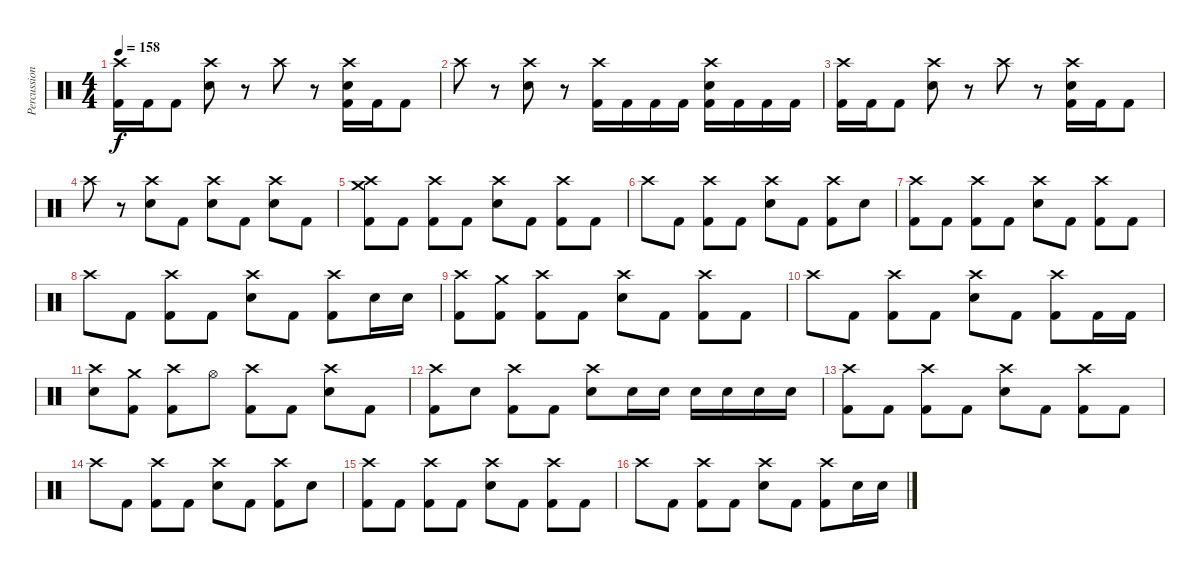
\track ("Percussion" "Percussion") {instrument percussion}
\staff {score}
\articulation defaults
\ts (4 4)
\tempo 158
\clef neutral
\ks c
("Crash high (hit)" "Kick (hit) 2").16{dy f} "Kick (hit) 2".16 "Kick (hit) 2".8 ("Crash high (hit)" "Snare (hit) 2").8 r.8 "Crash high (hit)".8 r.8 ("Crash high (hit)" "Snare (hit) 2" "Kick (hit) 2").16 "Kick (hit) 2".16 "Kick (hit) 2".8 |
"Crash high (hit)".8 r.8 ("Crash high (hit)" "Snare (hit) 2").8 r.8 ("Crash high (hit)" "Kick (hit) 2").16 "Kick (hit) 2".16 "Kick (hit) 2".16 "Kick (hit) 2".16 ("Crash high (hit)" "Snare (hit) 2" "Kick (hit) 2").16 "Kick (hit) 2".16 "Kick (hit) 2".16 "Kick (hit) 2".16 |
("Crash high (hit)" "Kick (hit) 2").16 "Kick (hit) 2".16 "Kick (hit) 2".8 ("Crash high (hit)" "Snare (hit) 2").8 r.8 "Crash high (hit)".8 r.8 ("Crash high (hit)" "Snare (hit) 2" "Kick (hit) 2").16 "Kick (hit) 2".16 "Kick (hit) 2".8 |
"Crash high (hit)".8 r.8 ("Crash high (hit)" "Snare (hit) 2").8 "Kick (hit) 2".8 ("Crash high (hit)" "Snare (hit) 2").8 "Kick (hit) 2".8 ("Crash high (hit)" "Snare (hit) 2").8 "Kick (hit) 2".8 |
("Crash high (hit)" "Crash medium (hit)" "Kick (hit) 2").8 "Kick (hit) 2".8 ("Crash high (hit)" "Kick (hit) 2").8 "Kick (hit) 2".8 ("Crash high (hit)" "Snare (hit) 2").8 "Kick (hit) 2".8 ("Crash high (hit)" "Kick (hit) 2").8 "Kick (hit) 2".8 |
"Crash high (hit)".8 "Kick (hit) 2".8 ("Crash high (hit)" "Kick (hit) 2").8 "Kick (hit) 2".8 ("Crash high (hit)" "Snare (hit) 2").8 "Kick (hit) 2".8 ("Crash high (hit)" "Kick (hit) 2").8 "Snare (hit) 2".8 |
("Crash high (hit)" "Kick (hit) 2").8 "Kick (hit) 2".8 ("Crash high (hit)" "Kick (hit) 2").8 "Kick (hit) 2".8 ("Crash high (hit)" "Snare (hit) 2").8 "Kick (hit) 2".8 ("Crash high (hit)" "Kick (hit) 2").8 "Kick (hit) 2".8 |
"Crash high (hit)".8 "Kick (hit) 2".8 ("Crash high (hit)" "Kick (hit) 2").8 "Kick (hit) 2".8 ("Crash high (hit)" "Snare (hit) 2").8 "Kick (hit) 2".8 ("Crash high (hit)" "Kick (hit) 2").8 "Snare (hit) 2".16 "Snare (hit) 2".16 |
("Crash high (hit)" "Kick (hit) 2").8 ("Crash medium (hit)" "Kick (hit) 2").8 ("Crash high (hit)" "Kick (hit) 2").8 "Kick (hit) 2".8 ("Crash high (hit)" "Snare (hit) 2").8 "Kick (hit) 2".8 ("Crash high (hit)" "Kick (hit) 2").8 "Kick (hit) 2".8 |
"Crash high (hit)".8 "Kick (hit) 2".8 ("Crash high (hit)" "Kick (hit) 2").8 "Kick (hit) 2".8 ("Crash high (hit)" "Snare (hit) 2").8 "Kick (hit) 2".8 ("Crash high (hit)" "Kick (hit) 2").8 "Kick (hit) 2".16 "Kick (hit) 2".16 |
("Crash high (hit)" "Snare (hit) 2").8 ("Crash medium (hit)" "Kick (hit) 2").8 ("Crash high (hit)" "Kick (hit) 2").8 "Hi-Hat (open)".8 ("Crash high (hit)" "Kick (hit) 2").8 "Kick (hit) 2".8 ("Crash high (hit)" "Snare (hit) 2").8 "Kick (hit) 2".8 |
("Crash high (hit)" "Kick (hit) 2").8 "Snare (hit) 2".8 ("Crash high (hit)" "Kick (hit) 2").8 "Kick (hit) 2".8 ("Crash high (hit)" "Snare (hit) 2").8 "Snare (hit) 2".16 "Snare (hit) 2".16 "Snare (hit) 2".16 "Snare (hit) 2".16 "Snare (hit) 2".16 "Snare (hit) 2".16 |
("Crash high (hit)" "Kick (hit) 2").8 "Kick (hit) 2".8 ("Crash high (hit)" "Kick (hit) 2").8 "Kick (hit) 2".8 ("Crash high (hit)" "Snare (hit) 2").8 "Kick (hit) 2".8 ("Crash high (hit)" "Kick (hit) 2").8 "Kick (hit) 2".8 |
"Crash high (hit)".8 "Kick (hit) 2".8 ("Crash high (hit)" "Kick (hit) 2").8 "Kick (hit) 2".8 ("Crash high (hit)" "Snare (hit) 2").8 "Kick (hit) 2".8 ("Crash high (hit)" "Kick (hit) 2").8 "Snare (hit) 2".8 |
("Crash high (hit)" "Kick (hit) 2").8 "Kick (hit) 2".8 ("Crash high (hit)" "Kick (hit) 2").8 "Kick (hit) 2".8 ("Crash high (hit)" "Snare (hit) 2").8 "Kick (hit) 2".8 ("Crash high (hit)" "Kick (hit) 2").8 "Kick (hit) 2".8 |
"Crash high (hit)".8 "Kick (hit) 2".8 ("Crash high (hit)" "Kick (hit) 2").8 "Kick (hit) 2".8 ("Crash high (hit)" "Snare (hit) 2").8 "Kick (hit) 2".8 ("Crash high (hit)" "Kick (hit) 2").8 "Snare (hit) 2".16 "Snare (hit) 2".16
